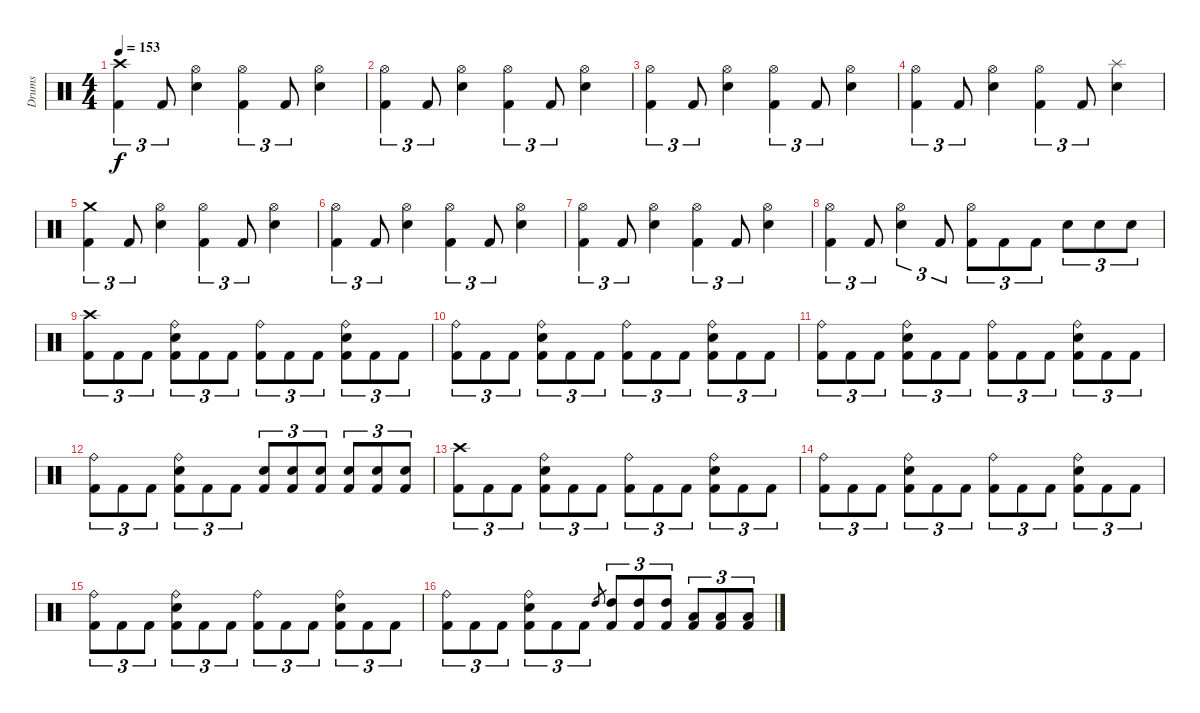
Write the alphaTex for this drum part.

\track ("Drums" "Drums") {instrument percussion}
\staff {score}
\articulation defaults
\ts (4 4)
\tempo 153
\clef neutral
\ks c
("Crash high (hit)" "Kick (hit) 2").4{tu (3 2) dy f} "Kick (hit) 2".8{tu (3 2)} ("Hi-Hat (open)" "Electric Snare (hit)").4 ("Hi-Hat (open)" "Kick (hit) 2").4{tu (3 2)} "Kick (hit) 2".8{tu (3 2)} ("Hi-Hat (open)" "Electric Snare (hit)").4 |
("Hi-Hat (open)" "Kick (hit) 2").4{tu (3 2)} "Kick (hit) 2".8{tu (3 2)} ("Hi-Hat (open)" "Electric Snare (hit)").4 ("Hi-Hat (open)" "Kick (hit) 2").4{tu (3 2)} "Kick (hit) 2".8{tu (3 2)} ("Hi-Hat (open)" "Electric Snare (hit)").4 |
("Hi-Hat (open)" "Kick (hit) 2").4{tu (3 2)} "Kick (hit) 2".8{tu (3 2)} ("Hi-Hat (open)" "Electric Snare (hit)").4 ("Hi-Hat (open)" "Kick (hit) 2").4{tu (3 2)} "Kick (hit) 2".8{tu (3 2)} ("Hi-Hat (open)" "Electric Snare (hit)").4 |
("Hi-Hat (open)" "Kick (hit) 2").4{tu (3 2)} "Kick (hit) 2".8{tu (3 2)} ("Hi-Hat (open)" "Electric Snare (hit)").4 ("Hi-Hat (open)" "Kick (hit) 2").4{tu (3 2)} "Kick (hit) 2".8{tu (3 2)} ("Splash (hit)" "Electric Snare (hit)").4 |
("Crash medium (hit)" "Kick (hit) 2").4{tu (3 2)} "Kick (hit) 2".8{tu (3 2)} ("Hi-Hat (open)" "Electric Snare (hit)").4 ("Hi-Hat (open)" "Kick (hit) 2").4{tu (3 2)} "Kick (hit) 2".8{tu (3 2)} ("Hi-Hat (open)" "Electric Snare (hit)").4 |
("Hi-Hat (open)" "Kick (hit) 2").4{tu (3 2)} "Kick (hit) 2".8{tu (3 2)} ("Hi-Hat (open)" "Electric Snare (hit)").4 ("Hi-Hat (open)" "Kick (hit) 2").4{tu (3 2)} "Kick (hit) 2".8{tu (3 2)} ("Hi-Hat (open)" "Electric Snare (hit)").4 |
("Hi-Hat (open)" "Kick (hit) 2").4{tu (3 2)} "Kick (hit) 2".8{tu (3 2)} ("Hi-Hat (open)" "Electric Snare (hit)").4 ("Hi-Hat (open)" "Kick (hit) 2").4{tu (3 2)} "Kick (hit) 2".8{tu (3 2)} ("Hi-Hat (open)" "Electric Snare (hit)").4 |
("Hi-Hat (open)" "Kick (hit) 2").4{tu (3 2)} "Kick (hit) 2".8{tu (3 2)} ("Hi-Hat (open)" "Electric Snare (hit)").4{tu (3 2)} "Kick (hit) 2".8{tu (3 2)} ("Hi-Hat (open)" "Kick (hit) 2").8{tu (3 2)} "Kick (hit) 2".8{tu (3 2)} "Kick (hit) 2".8{tu (3 2)} "Electric Snare (hit)".8{tu (3 2)} "Electric Snare (hit)".8{tu (3 2)} "Electric Snare (hit)".8{tu (3 2)} |
("Crash high (hit)" "Kick (hit) 2").8{tu (3 2)} "Kick (hit) 2".8{tu (3 2)} "Kick (hit) 2".8{tu (3 2)} ("Ride (bell)" "Electric Snare (hit)" "Kick (hit) 2").8{tu (3 2)} "Kick (hit) 2".8{tu (3 2)} "Kick (hit) 2".8{tu (3 2)} ("Ride (bell)" "Kick (hit) 2").8{tu (3 2)} "Kick (hit) 2".8{tu (3 2)} "Kick (hit) 2".8{tu (3 2)} ("Ride (bell)" "Electric Snare (hit)" "Kick (hit) 2").8{tu (3 2)} "Kick (hit) 2".8{tu (3 2)} "Kick (hit) 2".8{tu (3 2)} |
("Ride (bell)" "Kick (hit) 2").8{tu (3 2)} "Kick (hit) 2".8{tu (3 2)} "Kick (hit) 2".8{tu (3 2)} ("Ride (bell)" "Electric Snare (hit)" "Kick (hit) 2").8{tu (3 2)} "Kick (hit) 2".8{tu (3 2)} "Kick (hit) 2".8{tu (3 2)} ("Ride (bell)" "Kick (hit) 2").8{tu (3 2)} "Kick (hit) 2".8{tu (3 2)} "Kick (hit) 2".8{tu (3 2)} ("Ride (bell)" "Electric Snare (hit)" "Kick (hit) 2").8{tu (3 2)} "Kick (hit) 2".8{tu (3 2)} "Kick (hit) 2".8{tu (3 2)} |
("Ride (bell)" "Kick (hit) 2").8{tu (3 2)} "Kick (hit) 2".8{tu (3 2)} "Kick (hit) 2".8{tu (3 2)} ("Ride (bell)" "Electric Snare (hit)" "Kick (hit) 2").8{tu (3 2)} "Kick (hit) 2".8{tu (3 2)} "Kick (hit) 2".8{tu (3 2)} ("Ride (bell)" "Kick (hit) 2").8{tu (3 2)} "Kick (hit) 2".8{tu (3 2)} "Kick (hit) 2".8{tu (3 2)} ("Ride (bell)" "Electric Snare (hit)" "Kick (hit) 2").8{tu (3 2)} "Kick (hit) 2".8{tu (3 2)} "Kick (hit) 2".8{tu (3 2)} |
("Ride (bell)" "Kick (hit) 2").8{tu (3 2)} "Kick (hit) 2".8{tu (3 2)} "Kick (hit) 2".8{tu (3 2)} ("Ride (bell)" "Electric Snare (hit)" "Kick (hit) 2").8{tu (3 2)} "Kick (hit) 2".8{tu (3 2)} "Kick (hit) 2".8{tu (3 2)} ("Electric Snare (hit)" "Kick (hit) 2").8{tu (3 2)} ("Electric Snare (hit)" "Kick (hit) 2").8{tu (3 2)} ("Electric Snare (hit)" "Kick (hit) 2").8{tu (3 2)} ("Electric Snare (hit)" "Kick (hit) 2").8{tu (3 2)} ("Electric Snare (hit)" "Kick (hit) 2").8{tu (3 2)} ("Electric Snare (hit)" "Kick (hit) 2").8{tu (3 2)} |
("Crash high (hit)" "Kick (hit) 2").8{tu (3 2)} "Kick (hit) 2".8{tu (3 2)} "Kick (hit) 2".8{tu (3 2)} ("Ride (bell)" "Electric Snare (hit)" "Kick (hit) 2").8{tu (3 2)} "Kick (hit) 2".8{tu (3 2)} "Kick (hit) 2".8{tu (3 2)} ("Ride (bell)" "Kick (hit) 2").8{tu (3 2)} "Kick (hit) 2".8{tu (3 2)} "Kick (hit) 2".8{tu (3 2)} ("Ride (bell)" "Electric Snare (hit)" "Kick (hit) 2").8{tu (3 2)} "Kick (hit) 2".8{tu (3 2)} "Kick (hit) 2".8{tu (3 2)} |
("Ride (bell)" "Kick (hit) 2").8{tu (3 2)} "Kick (hit) 2".8{tu (3 2)} "Kick (hit) 2".8{tu (3 2)} ("Ride (bell)" "Electric Snare (hit)" "Kick (hit) 2").8{tu (3 2)} "Kick (hit) 2".8{tu (3 2)} "Kick (hit) 2".8{tu (3 2)} ("Ride (bell)" "Kick (hit) 2").8{tu (3 2)} "Kick (hit) 2".8{tu (3 2)} "Kick (hit) 2".8{tu (3 2)} ("Ride (bell)" "Electric Snare (hit)" "Kick (hit) 2").8{tu (3 2)} "Kick (hit) 2".8{tu (3 2)} "Kick (hit) 2".8{tu (3 2)} |
("Ride (bell)" "Kick (hit) 2").8{tu (3 2)} "Kick (hit) 2".8{tu (3 2)} "Kick (hit) 2".8{tu (3 2)} ("Ride (bell)" "Electric Snare (hit)" "Kick (hit) 2").8{tu (3 2)} "Kick (hit) 2".8{tu (3 2)} "Kick (hit) 2".8{tu (3 2)} ("Ride (bell)" "Kick (hit) 2").8{tu (3 2)} "Kick (hit) 2".8{tu (3 2)} "Kick (hit) 2".8{tu (3 2)} ("Ride (bell)" "Electric Snare (hit)" "Kick (hit) 2").8{tu (3 2)} "Kick (hit) 2".8{tu (3 2)} "Kick (hit) 2".8{tu (3 2)} |
("Ride (bell)" "Kick (hit) 2").8{tu (3 2)} "Kick (hit) 2".8{tu (3 2)} "Kick (hit) 2".8{tu (3 2)} ("Ride (bell)" "Electric Snare (hit)" "Kick (hit) 2").8{tu (3 2)} "Kick (hit) 2".8{tu (3 2)} "Kick (hit) 2".8{tu (3 2)} "High Tom (hit)".8{gr} ("High Tom (hit)" "Kick (hit) 2").8{tu (3 2)} ("High Tom (hit)" "Kick (hit) 2").8{tu (3 2)} ("High Tom (hit)" "Kick (hit) 2").8{tu (3 2)} ("Low Tom (hit)" "Kick (hit) 2").8{tu (3 2)} ("Low Tom (hit)" "Kick (hit) 2").8{tu (3 2)} ("Low Tom (hit)" "Kick (hit) 2").8{tu (3 2)}
